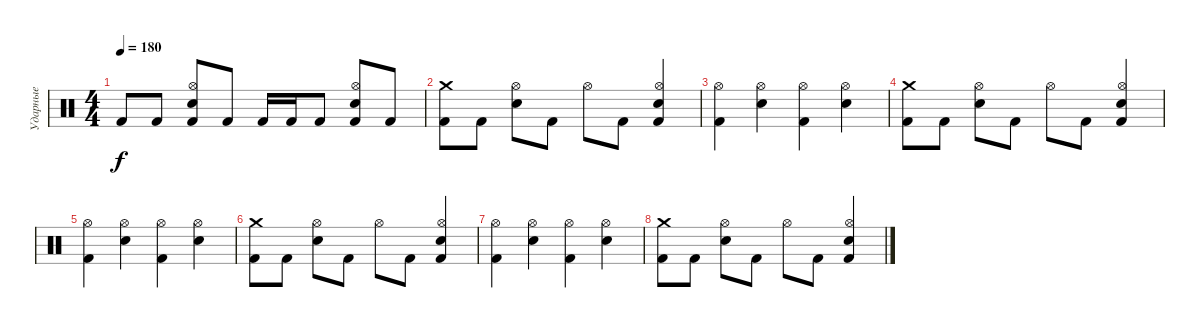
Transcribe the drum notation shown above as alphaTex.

\track ("Ударные" "Ударные") {instrument percussion}
\staff {score}
\articulation defaults
\ts (4 4)
\tempo 180
\clef neutral
\ks c "Kick (hit) 2".8{dy f} "Kick (hit) 2".8
("Kick (hit) 2" "Hi-Hat (open)" "Electric Snare (hit)").8 "Kick (hit) 2".8 "Kick (hit) 2".16 "Kick (hit) 2".16 "Kick (hit) 2".8 ("Kick (hit) 2" "Hi-Hat (open)" "Electric Snare (hit)").8 "Kick (hit) 2".8 |
("Kick (hit) 2" "Crash medium (hit)").8 "Kick (hit) 2".8 ("Electric Snare (hit)" "Hi-Hat (open)").8 "Kick (hit) 2".8 "Hi-Hat (open)".8 "Kick (hit) 2".8 ("Kick (hit) 2" "Hi-Hat (open)" "Electric Snare (hit)").4 |
("Hi-Hat (open)" "Kick (hit) 2").4 ("Hi-Hat (open)" "Electric Snare (hit)").4 ("Hi-Hat (open)" "Kick (hit) 2").4 ("Electric Snare (hit)" "Hi-Hat (open)").4 |
("Kick (hit) 2" "Crash medium (hit)").8 "Kick (hit) 2".8 ("Electric Snare (hit)" "Hi-Hat (open)").8 "Kick (hit) 2".8 "Hi-Hat (open)".8 "Kick (hit) 2".8 ("Kick (hit) 2" "Hi-Hat (open)" "Electric Snare (hit)").4 |
("Hi-Hat (open)" "Kick (hit) 2").4 ("Hi-Hat (open)" "Electric Snare (hit)").4 ("Hi-Hat (open)" "Kick (hit) 2").4 ("Electric Snare (hit)" "Hi-Hat (open)").4 |
("Kick (hit) 2" "Crash medium (hit)").8 "Kick (hit) 2".8 ("Electric Snare (hit)" "Hi-Hat (open)").8 "Kick (hit) 2".8 "Hi-Hat (open)".8 "Kick (hit) 2".8 ("Kick (hit) 2" "Hi-Hat (open)" "Electric Snare (hit)").4 |
("Hi-Hat (open)" "Kick (hit) 2").4 ("Hi-Hat (open)" "Electric Snare (hit)").4 ("Hi-Hat (open)" "Kick (hit) 2").4 ("Electric Snare (hit)" "Hi-Hat (open)").4 |
("Kick (hit) 2" "Crash medium (hit)").8 "Kick (hit) 2".8 ("Electric Snare (hit)" "Hi-Hat (open)").8 "Kick (hit) 2".8 "Hi-Hat (open)".8 "Kick (hit) 2".8 ("Kick (hit) 2" "Hi-Hat (open)" "Electric Snare (hit)").4
